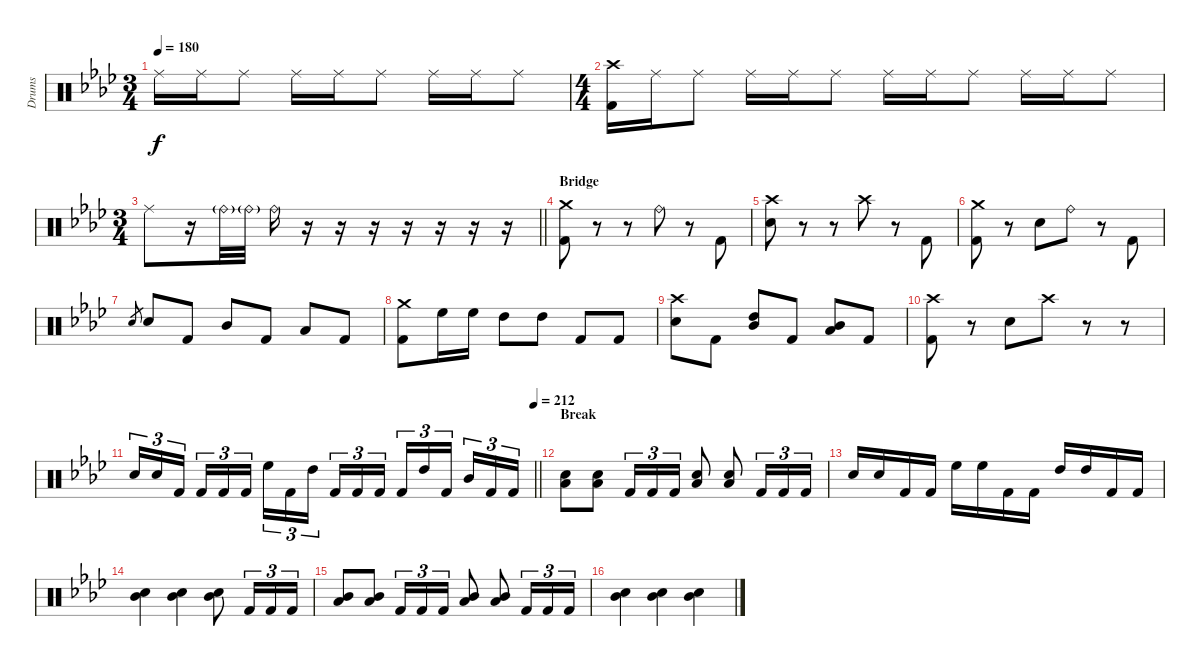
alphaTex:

\bracketExtendMode groupsimilarinstruments
\otherSystemsTrackNameOrientation horizontal
\track ("Guyot Begin-Benoit" "Drums") {instrument percussion}
\staff {score}
\articulation defaults
\ts (3 4)
\beaming (8 2 2 2 2)
\tempo 180
\clef neutral
\ks ab "Ride (middle)"{acc forcenatural}.16{dy f beam Down} "Ride (middle)"{acc forcenatural}.16{beam Down} "Ride (middle)"{acc forcenatural}.8{beam Down} "Ride (middle)"{acc forcenatural}.16{beam Down} "Ride (middle)"{acc forcenatural}.16{beam Down} "Ride (middle)"{acc forcenatural}.8{beam Down} "Ride (middle)"{acc forcenatural}.16{beam Down} "Ride (middle)"{acc forcenatural}.16{beam Down} "Ride (middle)"{acc forcenatural}.8{beam Down}
|
\ts (4 4)
\beaming (8 2 2 2 2)
("Crash high (hit)"{acc forcenatural} "Kick (hit) 2"{acc forcenatural}).16{beam Down} "Ride (middle)"{acc forcenatural}.16{beam Down} "Ride (middle)"{acc forcenatural}.8{beam Down} "Ride (middle)"{acc forcenatural}.16{beam Down} "Ride (middle)"{acc forcenatural}.16{beam Down} "Ride (middle)"{acc forcenatural}.8{beam Down} "Ride (middle)"{acc forcenatural}.16{beam Down} "Ride (middle)"{acc forcenatural}.16{beam Down} "Ride (middle)"{acc forcenatural}.8{beam Down} "Ride (middle)"{acc forcenatural}.16{beam Down} "Ride (middle)"{acc forcenatural}.16{beam Down} "Ride (middle)"{acc forcenatural}.8{beam Down} |
\ts (3 4)
\beaming (8 2 2 2 2)
\barLineRight lightlight "Ride (middle)"{acc forcenatural}.8{beam Down}
r.16{beam Down} "Ride (bell)"{g acc forcenatural}.32{beam Down} "Ride (bell)"{g acc forcenatural}.32{beam Down} "Ride (bell)"{acc forcenatural}.16{beam Down} r.16{beam Down} r.16{beam Down} r.16{beam Down} r.16{beam Down} r.16{beam Down} r.16{beam Down} r.16{beam Down} |
\section ("" "Bridge")
("Crash medium (hit)"{acc forcenatural} "Kick (hit) 2"{acc forcenatural}).8{beam Down} r.8{beam Down} r.8{beam Down} "Ride (bell)"{acc forcenatural}.8{beam Down} r.8{beam Down} "Kick (hit) 2"{acc forcenatural}.8{beam Up} |
("Crash high (hit)"{acc forcenatural} "Snare (hit) 2"{acc forcenatural}).8{beam Down} r.8{beam Down} r.8{beam Down} "Crash high (hit)"{acc forcenatural}.8{beam Down} r.8{beam Down} "Kick (hit) 2"{acc forcenatural}.8{beam Up} |
("Crash medium (hit)"{acc forcenatural} "Kick (hit) 2"{acc forcenatural}).8{beam Down} r.8{beam Down} "Snare (hit) 2"{acc forcenatural}.8{beam Down} "Ride (bell)"{acc forcenatural}.8{beam Down} r.8{beam Down} "Kick (hit) 2"{acc forcenatural}.8{beam Up} |
"Snare (hit) 2"{acc forcenatural}.8{gr beam Up} "Snare (hit) 2"{acc forcenatural}.8{beam Up} "Kick (hit) 2"{acc forcenatural}.8{beam Up} "Mid Tom (hit)"{acc forcenatural}.8{beam Up} "Kick (hit) 2"{acc forcenatural}.8{beam Up} "Low Tom (hit)"{acc forcenatural}.8{beam Up} "Kick (hit) 2"{acc forcenatural}.8{beam Up} |
("Crash medium (hit)"{acc forcenatural} "Kick (hit) 2"{acc forcenatural}).8{beam Down} "High Floor Tom (hit)"{acc forcenatural}.16{beam Down} "High Floor Tom (hit)"{acc forcenatural}.16{beam Down} "High Tom (hit)"{acc forcenatural}.8{beam Down} "High Tom (hit)"{acc forcenatural}.8{beam Down} "Kick (hit) 2"{acc forcenatural}.8{beam Up} "Kick (hit) 2"{acc forcenatural}.8{beam Up} |
("Crash high (hit)"{acc forcenatural} "Snare (hit) 2"{acc forcenatural}).8{beam Down} "Kick (hit) 2"{acc forcenatural}.8{beam Down} ("High Tom (hit)"{acc forcenatural} "Mid Tom (hit)"{acc forcenatural}).8{beam Up} "Kick (hit) 2"{acc forcenatural}.8{beam Up} ("Mid Tom (hit)"{acc forcenatural} "Low Tom (hit)"{acc forcenatural}).8{beam Up} "Kick (hit) 2"{acc forcenatural}.8{beam Up} |
("Crash high (hit)"{acc forcenatural} "Kick (hit) 2"{acc forcenatural}).8{beam Down} r.8{beam Down} "Snare (hit) 2"{acc forcenatural}.8{beam Down} "Crash high (hit)"{acc forcenatural}.8{beam Down} r.8{beam Down} r.8{beam Down} |
\tempo (212 1)
\barLineRight lightlight "Snare (hit) 2"{acc forcenatural}.16{tu (3 2) beam Up} "Snare (hit) 2"{acc forcenatural}.16{tu (3 2) beam Up} "Kick (hit) 2"{acc forcenatural}.16{tu (3 2) beam Up} "Kick (hit) 2"{acc forcenatural}.16{tu (3 2) beam Up} "Kick (hit) 2"{acc forcenatural}.16{tu (3 2) beam Up} "Kick (hit) 2"{acc forcenatural}.16{tu (3 2) beam Up} "High Floor Tom (hit)"{acc forcenatural}.16{tu (3 2) beam Down} "Kick (hit) 2"{acc forcenatural}.16{tu (3 2) beam Down} "High Tom (hit)"{acc forcenatural}.16{tu (3 2) beam Down} "Kick (hit) 2"{acc forcenatural}.16{tu (3 2) beam Up} "Kick (hit) 2"{acc forcenatural}.16{tu (3 2) beam Up} "Kick (hit) 2"{acc forcenatural}.16{tu (3 2) beam Up} "Kick (hit) 2"{acc forcenatural}.16{tu (3 2) beam Up} "High Tom (hit)"{acc forcenatural}.16{tu (3 2) beam Up} "Kick (hit) 2"{acc forcenatural}.16{tu (3 2) beam Up} "Mid Tom (hit)"{acc forcenatural}.16{tu (3 2) beam Up} "Kick (hit) 2"{acc forcenatural}.16{tu (3 2) beam Up} "Kick (hit) 2"{acc forcenatural}.16{tu (3 2) beam Up}
|
\section ("" "Break")
("Low Tom (hit)"{acc forcenatural} "Snare (hit) 2"{acc forcenatural}).8{beam Down} ("Low Tom (hit)"{acc forcenatural} "Snare (hit) 2"{acc forcenatural}).8{beam Down} "Kick (hit) 2"{acc forcenatural}.16{tu (3 2) beam Up} "Kick (hit) 2"{acc forcenatural}.16{tu (3 2) beam Up} "Kick (hit) 2"{acc forcenatural}.16{tu (3 2) beam Up} ("Low Tom (hit)"{acc forcenatural} "Snare (hit) 2"{acc forcenatural}).8{beam Up} ("Low Tom (hit)"{acc forcenatural} "Snare (hit) 2"{acc forcenatural}).8{beam Up} "Kick (hit) 2"{acc forcenatural}.16{tu (3 2) beam Up} "Kick (hit) 2"{acc forcenatural}.16{tu (3 2) beam Up} "Kick (hit) 2"{acc forcenatural}.16{tu (3 2) beam Up} |
"Snare (hit) 2"{acc forcenatural}.16{beam Up} "Snare (hit) 2"{acc forcenatural}.16{beam Up} "Kick (hit) 2"{acc forcenatural}.16{beam Up} "Kick (hit) 2"{acc forcenatural}.16{beam Up} "High Floor Tom (hit)"{acc forcenatural}.16{beam Down} "High Floor Tom (hit)"{acc forcenatural}.16{beam Down} "Kick (hit) 2"{acc forcenatural}.16{beam Down} "Kick (hit) 2"{acc forcenatural}.16{beam Down} "High Tom (hit)"{acc forcenatural}.16{beam Up} "High Tom (hit)"{acc forcenatural}.16{beam Up} "Kick (hit) 2"{acc forcenatural}.16{beam Up} "Kick (hit) 2"{acc forcenatural}.16{beam Up} |
("Snare (hit) 2"{acc forcenatural} "Mid Tom (hit)"{acc forcenatural}).4{beam Down} ("Snare (hit) 2"{acc forcenatural} "Mid Tom (hit)"{acc forcenatural}).4{beam Down} ("Snare (hit) 2"{acc forcenatural} "Mid Tom (hit)"{acc forcenatural}).8{beam Down} "Kick (hit) 2"{acc forcenatural}.16{tu (3 2) beam Up} "Kick (hit) 2"{acc forcenatural}.16{tu (3 2) beam Up} "Kick (hit) 2"{acc forcenatural}.16{tu (3 2) beam Up} |
("Mid Tom (hit)"{acc forcenatural} "Low Tom (hit)"{acc forcenatural}).8{beam Up} ("Mid Tom (hit)"{acc forcenatural} "Low Tom (hit)"{acc forcenatural}).8{beam Up} "Kick (hit) 2"{acc forcenatural}.16{tu (3 2) beam Up} "Kick (hit) 2"{acc forcenatural}.16{tu (3 2) beam Up} "Kick (hit) 2"{acc forcenatural}.16{tu (3 2) beam Up} ("Low Tom (hit)"{acc forcenatural} "Mid Tom (hit)"{acc forcenatural}).8{beam Up} ("Mid Tom (hit)"{acc forcenatural} "Low Tom (hit)"{acc forcenatural}).8{beam Up} "Kick (hit) 2"{acc forcenatural}.16{tu (3 2) beam Up} "Kick (hit) 2"{acc forcenatural}.16{tu (3 2) beam Up} "Kick (hit) 2"{acc forcenatural}.16{tu (3 2) beam Up} |
("Mid Tom (hit)"{acc forcenatural} "Snare (hit) 2"{acc forcenatural}).4{beam Down} ("Mid Tom (hit)"{acc forcenatural} "Snare (hit) 2"{acc forcenatural}).4{beam Down} ("Mid Tom (hit)"{acc forcenatural} "Snare (hit) 2"{acc forcenatural}).4{beam Down}
